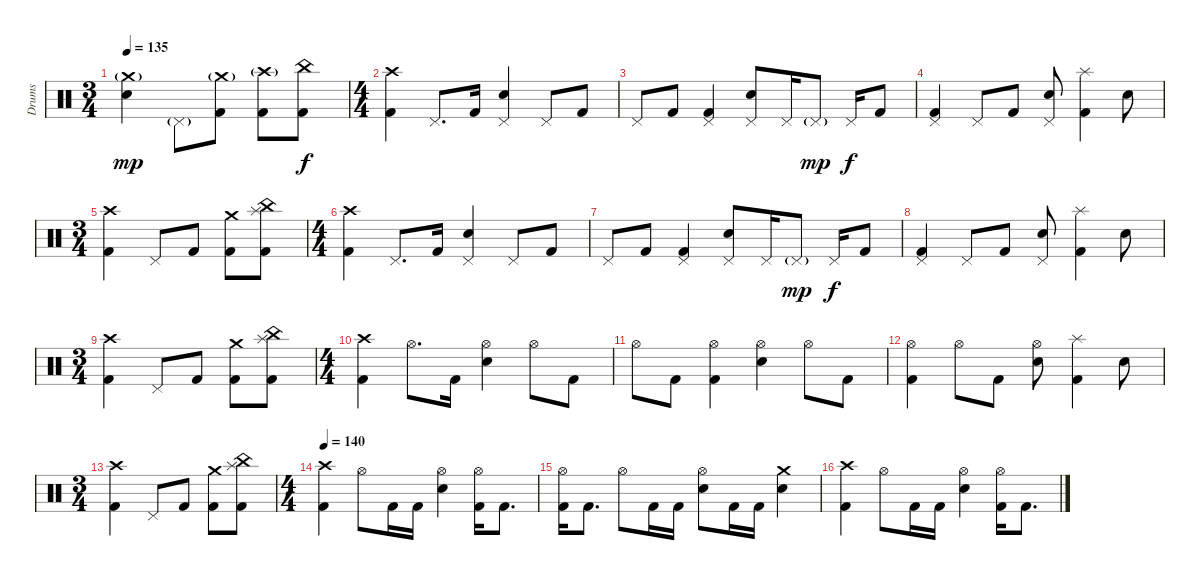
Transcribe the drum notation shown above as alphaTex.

\track ("Drums" "Drums") {instrument percussion}
\staff {score}
\articulation defaults
\ts (3 4)
\tempo 135
\clef neutral
\ks c
("Crash medium (hit)"{g} "Electric Snare (hit)").4{dy mp} "Pedal Hi-Hat (hit)"{g}.8 ("Crash medium (hit)"{g} "Kick (hit) 2").8 ("Crash high (hit)"{g} "Kick (hit) 2").8 ("China (hit)" "Kick (hit) 2").8{dy f} |
\ts (4 4)
("Crash high (hit)" "Kick (hit) 2").4 "Pedal Hi-Hat (hit)".8{d} "Kick (hit) 2".16 ("Pedal Hi-Hat (hit)" "Electric Snare (hit)").4 "Pedal Hi-Hat (hit)".8 "Kick (hit) 2".8 |
"Pedal Hi-Hat (hit)".8 "Kick (hit) 2".8 ("Pedal Hi-Hat (hit)" "Kick (hit) 2").4 ("Pedal Hi-Hat (hit)" "Electric Snare (hit)").8 "Pedal Hi-Hat (hit)".16 "Pedal Hi-Hat (hit)"{g}.8{dy mp} "Pedal Hi-Hat (hit)".16{dy f} "Kick (hit) 2".8 |
("Pedal Hi-Hat (hit)" "Kick (hit) 2").4 "Pedal Hi-Hat (hit)".8 "Kick (hit) 2".8 ("Pedal Hi-Hat (hit)" "Electric Snare (hit)").8 ("Splash (hit)" "Kick (hit) 2").4 "Electric Snare (hit)".8 |
\ts (3 4)
("Crash high (hit)" "Kick (hit) 2").4 "Pedal Hi-Hat (hit)".8 "Kick (hit) 2".8 ("Crash medium (hit)" "Kick (hit) 2").8 ("Splash (hit)" "China (hit)" "Kick (hit) 2").8 |
\ts (4 4)
("Crash high (hit)" "Kick (hit) 2").4 "Pedal Hi-Hat (hit)".8{d} "Kick (hit) 2".16 ("Pedal Hi-Hat (hit)" "Electric Snare (hit)").4 "Pedal Hi-Hat (hit)".8 "Kick (hit) 2".8 |
"Pedal Hi-Hat (hit)".8 "Kick (hit) 2".8 ("Pedal Hi-Hat (hit)" "Kick (hit) 2").4 ("Pedal Hi-Hat (hit)" "Electric Snare (hit)").8 "Pedal Hi-Hat (hit)".16 "Pedal Hi-Hat (hit)"{g}.8{dy mp} "Pedal Hi-Hat (hit)".16{dy f} "Kick (hit) 2".8 |
("Pedal Hi-Hat (hit)" "Kick (hit) 2").4 "Pedal Hi-Hat (hit)".8 "Kick (hit) 2".8 ("Pedal Hi-Hat (hit)" "Electric Snare (hit)").8 ("Splash (hit)" "Kick (hit) 2").4 "Electric Snare (hit)".8 |
\ts (3 4)
("Crash high (hit)" "Kick (hit) 2").4 "Pedal Hi-Hat (hit)".8 "Kick (hit) 2".8 ("Crash medium (hit)" "Kick (hit) 2").8 ("Splash (hit)" "China (hit)" "Kick (hit) 2").8 |
\ts (4 4)
("Crash high (hit)" "Kick (hit) 2").4 "Hi-Hat (open)".8{d} "Kick (hit) 2".16 ("Hi-Hat (open)" "Electric Snare (hit)").4 "Hi-Hat (open)".8 "Kick (hit) 2".8 |
"Hi-Hat (open)".8 "Kick (hit) 2".8 ("Hi-Hat (open)" "Kick (hit) 2").4 ("Hi-Hat (open)" "Electric Snare (hit)").4 "Hi-Hat (open)".8 "Kick (hit) 2".8 |
("Hi-Hat (open)" "Kick (hit) 2").4 "Hi-Hat (open)".8 "Kick (hit) 2".8 ("Hi-Hat (open)" "Electric Snare (hit)").8 ("Splash (hit)" "Kick (hit) 2").4 "Electric Snare (hit)".8 |
\ts (3 4)
("Crash high (hit)" "Kick (hit) 2").4 "Pedal Hi-Hat (hit)".8 "Kick (hit) 2".8 ("Crash medium (hit)" "Kick (hit) 2").8 ("Splash (hit)" "China (hit)" "Kick (hit) 2").8 |
\ts (4 4)
\tempo 140
("Crash high (hit)" "Kick (hit) 2").4 "Hi-Hat (open)".8 "Kick (hit) 2".16 "Kick (hit) 2".16 ("Hi-Hat (open)" "Electric Snare (hit)").4 ("Hi-Hat (open)" "Kick (hit) 2").16 "Kick (hit) 2".8{d} |
("Hi-Hat (open)" "Kick (hit) 2").16 "Kick (hit) 2".8{d} "Hi-Hat (open)".8 "Kick (hit) 2".16 "Kick (hit) 2".16 ("Hi-Hat (open)" "Electric Snare (hit)").8 "Kick (hit) 2".16 "Kick (hit) 2".16 ("Crash medium (hit)" "Electric Snare (hit)").4 |
("Crash high (hit)" "Kick (hit) 2").4 "Hi-Hat (open)".8 "Kick (hit) 2".16 "Kick (hit) 2".16 ("Hi-Hat (open)" "Electric Snare (hit)").4 ("Hi-Hat (open)" "Kick (hit) 2").16 "Kick (hit) 2".8{d}
